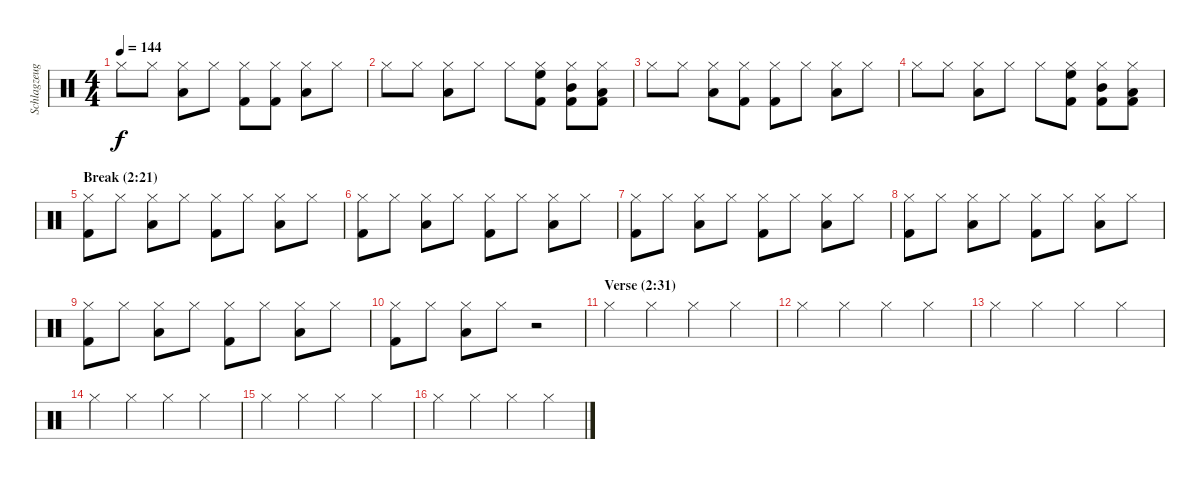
\track ("Schlagzeug" "Schlagzeug") {instrument percussion}
\staff {score}
\articulation defaults
\ts (4 4)
\tempo 144
\clef neutral
\ks c "Hi-Hat (closed)".8{dy f} "Hi-Hat (closed)".8
("Hi-Hat (closed)" "Low Tom (hit)").8 "Hi-Hat (closed)".8 ("Hi-Hat (closed)" "Kick (hit) 2").8 ("Hi-Hat (closed)" "Kick (hit) 2").8 ("Hi-Hat (closed)" "Low Tom (hit)").8 "Hi-Hat (closed)".8 |
"Hi-Hat (closed)".8 "Hi-Hat (closed)".8 ("Hi-Hat (closed)" "Low Tom (hit)").8 "Hi-Hat (closed)".8 "Hi-Hat (closed)".8 ("Hi-Hat (closed)" "High Floor Tom (hit)" "Kick (hit) 2").8 ("Hi-Hat (closed)" "Mid Tom (hit)" "Kick (hit) 2").8 ("Hi-Hat (closed)" "Low Tom (hit)" "Kick (hit) 2").8 |
"Hi-Hat (closed)".8 "Hi-Hat (closed)".8 ("Hi-Hat (closed)" "Low Tom (hit)").8 ("Hi-Hat (closed)" "Kick (hit) 2").8 ("Hi-Hat (closed)" "Kick (hit) 2").8 "Hi-Hat (closed)".8 ("Hi-Hat (closed)" "Low Tom (hit)").8 "Hi-Hat (closed)".8 |
"Hi-Hat (closed)".8 "Hi-Hat (closed)".8 ("Hi-Hat (closed)" "Low Tom (hit)").8 "Hi-Hat (closed)".8 "Hi-Hat (closed)".8 ("Hi-Hat (closed)" "High Floor Tom (hit)" "Kick (hit) 2").8 ("Hi-Hat (closed)" "Mid Tom (hit)" "Kick (hit) 2").8 ("Hi-Hat (closed)" "Low Tom (hit)" "Kick (hit) 2").8 |
\section ("" "Break (2:21)")
("Hi-Hat (closed)" "Kick (hit) 2").8 "Hi-Hat (closed)".8 ("Hi-Hat (closed)" "Low Tom (hit)").8 "Hi-Hat (closed)".8 ("Hi-Hat (closed)" "Kick (hit) 2").8 "Hi-Hat (closed)".8 ("Hi-Hat (closed)" "Low Tom (hit)").8 "Hi-Hat (closed)".8 |
("Hi-Hat (closed)" "Kick (hit) 2").8 "Hi-Hat (closed)".8 ("Hi-Hat (closed)" "Low Tom (hit)").8 "Hi-Hat (closed)".8 ("Hi-Hat (closed)" "Kick (hit) 2").8 "Hi-Hat (closed)".8 ("Hi-Hat (closed)" "Low Tom (hit)").8 "Hi-Hat (closed)".8 |
("Hi-Hat (closed)" "Kick (hit) 2").8 "Hi-Hat (closed)".8 ("Hi-Hat (closed)" "Low Tom (hit)").8 "Hi-Hat (closed)".8 ("Hi-Hat (closed)" "Kick (hit) 2").8 "Hi-Hat (closed)".8 ("Hi-Hat (closed)" "Low Tom (hit)").8 "Hi-Hat (closed)".8 |
("Hi-Hat (closed)" "Kick (hit) 2").8 "Hi-Hat (closed)".8 ("Hi-Hat (closed)" "Low Tom (hit)").8 "Hi-Hat (closed)".8 ("Hi-Hat (closed)" "Kick (hit) 2").8 "Hi-Hat (closed)".8 ("Hi-Hat (closed)" "Low Tom (hit)").8 "Hi-Hat (closed)".8 |
("Hi-Hat (closed)" "Kick (hit) 2").8 "Hi-Hat (closed)".8 ("Hi-Hat (closed)" "Low Tom (hit)").8 "Hi-Hat (closed)".8 ("Hi-Hat (closed)" "Kick (hit) 2").8 "Hi-Hat (closed)".8 ("Hi-Hat (closed)" "Low Tom (hit)").8 "Hi-Hat (closed)".8 |
("Hi-Hat (closed)" "Kick (hit) 2").8 "Hi-Hat (closed)".8 ("Hi-Hat (closed)" "Low Tom (hit)").8 "Hi-Hat (closed)".8 r.2 |
\section ("" "Verse (2:31)")
"Hi-Hat (closed)".4 "Hi-Hat (closed)".4 "Hi-Hat (closed)".4 "Hi-Hat (closed)".4 |
"Hi-Hat (closed)".4 "Hi-Hat (closed)".4 "Hi-Hat (closed)".4 "Hi-Hat (closed)".4 |
"Hi-Hat (closed)".4 "Hi-Hat (closed)".4 "Hi-Hat (closed)".4 "Hi-Hat (closed)".4 |
"Hi-Hat (closed)".4 "Hi-Hat (closed)".4 "Hi-Hat (closed)".4 "Hi-Hat (closed)".4 |
"Hi-Hat (closed)".4 "Hi-Hat (closed)".4 "Hi-Hat (closed)".4 "Hi-Hat (closed)".4 |
"Hi-Hat (closed)".4 "Hi-Hat (closed)".4 "Hi-Hat (closed)".4 "Hi-Hat (closed)".4
